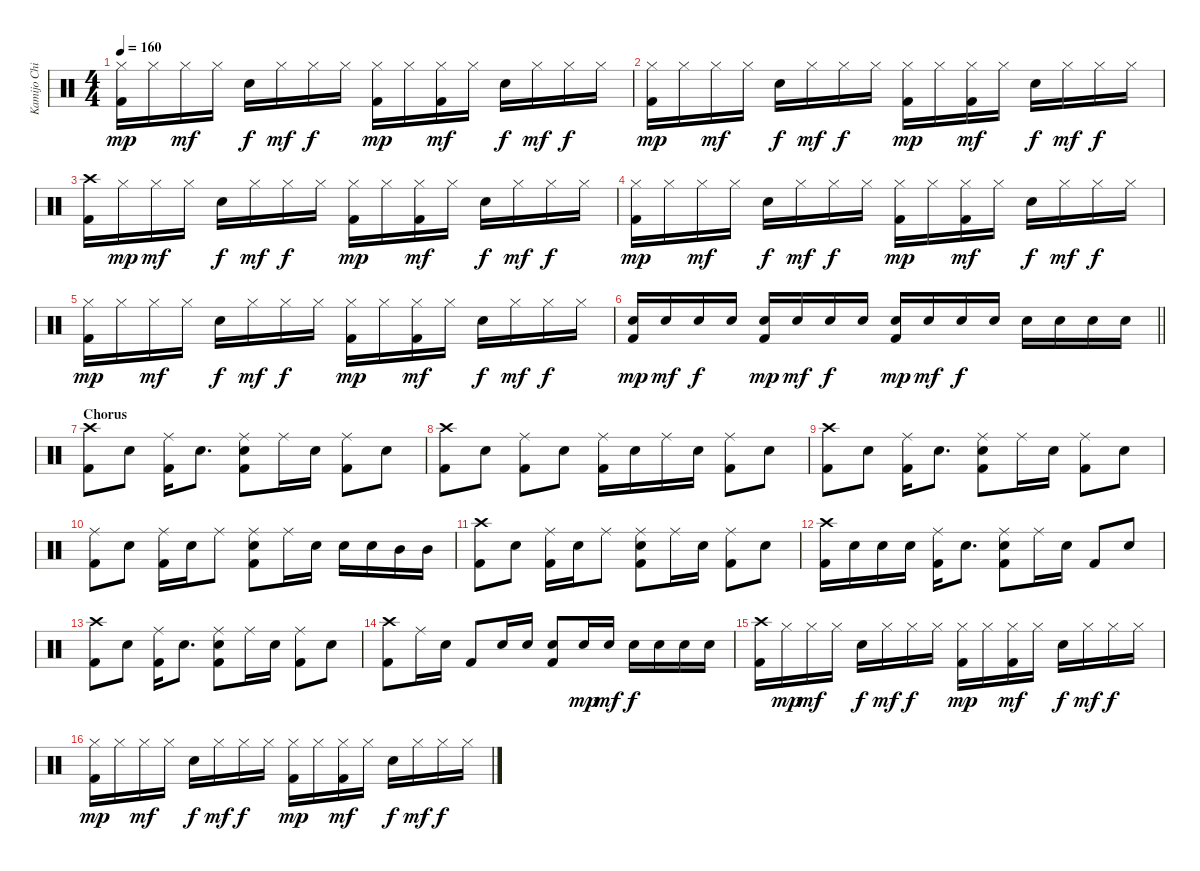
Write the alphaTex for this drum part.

\track ("Kamijo Chihiro" "Kamijo Chi") {instrument percussion}
\staff {score}
\articulation defaults
\ts (4 4)
\tempo 160
\clef neutral
\ks c
("Hi-Hat (closed)" "Kick (hit) 2").16{dy mp} "Hi-Hat (closed)".16 "Hi-Hat (closed)".16{dy mf} "Hi-Hat (closed)".16 "Snare (hit) 2".16{dy f} "Hi-Hat (closed)".16{dy mf} "Hi-Hat (closed)".16{dy f} "Hi-Hat (closed)".16 ("Hi-Hat (closed)" "Kick (hit) 2").16{dy mp} "Hi-Hat (closed)".16 ("Hi-Hat (closed)" "Kick (hit) 2").16{dy mf} "Hi-Hat (closed)".16 "Snare (hit) 2".16{dy f} "Hi-Hat (closed)".16{dy mf} "Hi-Hat (closed)".16{dy f} "Hi-Hat (closed)".16 |
("Hi-Hat (closed)" "Kick (hit) 2").16{dy mp} "Hi-Hat (closed)".16 "Hi-Hat (closed)".16{dy mf} "Hi-Hat (closed)".16 "Snare (hit) 2".16{dy f} "Hi-Hat (closed)".16{dy mf} "Hi-Hat (closed)".16{dy f} "Hi-Hat (closed)".16 ("Hi-Hat (closed)" "Kick (hit) 2").16{dy mp} "Hi-Hat (closed)".16 ("Hi-Hat (closed)" "Kick (hit) 2").16{dy mf} "Hi-Hat (closed)".16 "Snare (hit) 2".16{dy f} "Hi-Hat (closed)".16{dy mf} "Hi-Hat (closed)".16{dy f} "Hi-Hat (closed)".16 |
("Crash high (hit)" "Kick (hit) 2").16 "Hi-Hat (closed)".16{dy mp} "Hi-Hat (closed)".16{dy mf} "Hi-Hat (closed)".16 "Snare (hit) 2".16{dy f} "Hi-Hat (closed)".16{dy mf} "Hi-Hat (closed)".16{dy f} "Hi-Hat (closed)".16 ("Hi-Hat (closed)" "Kick (hit) 2").16{dy mp} "Hi-Hat (closed)".16 ("Hi-Hat (closed)" "Kick (hit) 2").16{dy mf} "Hi-Hat (closed)".16 "Snare (hit) 2".16{dy f} "Hi-Hat (closed)".16{dy mf} "Hi-Hat (closed)".16{dy f} "Hi-Hat (closed)".16 |
("Hi-Hat (closed)" "Kick (hit) 2").16{dy mp} "Hi-Hat (closed)".16 "Hi-Hat (closed)".16{dy mf} "Hi-Hat (closed)".16 "Snare (hit) 2".16{dy f} "Hi-Hat (closed)".16{dy mf} "Hi-Hat (closed)".16{dy f} "Hi-Hat (closed)".16 ("Hi-Hat (closed)" "Kick (hit) 2").16{dy mp} "Hi-Hat (closed)".16 ("Hi-Hat (closed)" "Kick (hit) 2").16{dy mf} "Hi-Hat (closed)".16 "Snare (hit) 2".16{dy f} "Hi-Hat (closed)".16{dy mf} "Hi-Hat (closed)".16{dy f} "Hi-Hat (closed)".16 |
("Hi-Hat (closed)" "Kick (hit) 2").16{dy mp} "Hi-Hat (closed)".16 "Hi-Hat (closed)".16{dy mf} "Hi-Hat (closed)".16 "Snare (hit) 2".16{dy f} "Hi-Hat (closed)".16{dy mf} "Hi-Hat (closed)".16{dy f} "Hi-Hat (closed)".16 ("Hi-Hat (closed)" "Kick (hit) 2").16{dy mp} "Hi-Hat (closed)".16 ("Hi-Hat (closed)" "Kick (hit) 2").16{dy mf} "Hi-Hat (closed)".16 "Snare (hit) 2".16{dy f} "Hi-Hat (closed)".16{dy mf} "Hi-Hat (closed)".16{dy f} "Hi-Hat (closed)".16 |
\barLineRight lightlight
("Snare (hit) 2" "Kick (hit) 2").16{dy mp} "Snare (hit) 2".16{dy mf} "Snare (hit) 2".16{dy f} "Snare (hit) 2".16 ("Snare (hit) 2" "Kick (hit) 2").16{dy mp} "Snare (hit) 2".16{dy mf} "Snare (hit) 2".16{dy f} "Snare (hit) 2".16 ("Snare (hit) 2" "Kick (hit) 2").16{dy mp} "Snare (hit) 2".16{dy mf} "Snare (hit) 2".16{dy f} "Snare (hit) 2".16 "Snare (hit) 2".16 "Snare (hit) 2".16 "Snare (hit) 2".16 "Snare (hit) 2".16 |
\section ("" "Chorus")
("Crash high (hit)" "Kick (hit) 2").8 "Snare (hit) 2".8 ("Ride (middle)" "Kick (hit) 2").16 "Snare (hit) 2".8{d} ("Ride (middle)" "Snare (hit) 2" "Kick (hit) 2").8 "Ride (middle)".16 "Snare (hit) 2".16 ("Ride (middle)" "Kick (hit) 2").8 "Snare (hit) 2".8 |
("Crash high (hit)" "Kick (hit) 2").8 "Snare (hit) 2".8 ("Ride (middle)" "Kick (hit) 2").8 "Snare (hit) 2".8 ("Ride (middle)" "Kick (hit) 2").16 "Snare (hit) 2".16 "Ride (middle)".16 "Snare (hit) 2".16 ("Ride (middle)" "Kick (hit) 2").8 "Snare (hit) 2".8 |
("Crash high (hit)" "Kick (hit) 2").8 "Snare (hit) 2".8 ("Ride (middle)" "Kick (hit) 2").16 "Snare (hit) 2".8{d} ("Ride (middle)" "Snare (hit) 2" "Kick (hit) 2").8 "Ride (middle)".16 "Snare (hit) 2".16 ("Ride (middle)" "Kick (hit) 2").8 "Snare (hit) 2".8 |
("Ride (middle)" "Kick (hit) 2").8 "Snare (hit) 2".8 ("Ride (middle)" "Kick (hit) 2").16 "Snare (hit) 2".16 "Ride (middle)".8 ("Ride (middle)" "Snare (hit) 2" "Kick (hit) 2").8 "Ride (middle)".16 "Snare (hit) 2".16 "Snare (hit) 2".16 "Snare (hit) 2".16 "Mid Tom (hit)".16 "Mid Tom (hit)".16 |
("Crash high (hit)" "Kick (hit) 2").8 "Snare (hit) 2".8 ("Ride (middle)" "Kick (hit) 2").16 "Snare (hit) 2".16 "Ride (middle)".8 ("Ride (middle)" "Snare (hit) 2" "Kick (hit) 2").8 "Ride (middle)".16 "Snare (hit) 2".16 ("Ride (middle)" "Kick (hit) 2").8 "Snare (hit) 2".8 |
("Crash high (hit)" "Kick (hit) 2").16 "Snare (hit) 2".16 "Snare (hit) 2".16 "Snare (hit) 2".16 ("Ride (middle)" "Kick (hit) 2").16 "Snare (hit) 2".8{d} ("Ride (middle)" "Snare (hit) 2" "Kick (hit) 2").8 "Ride (middle)".16 "Snare (hit) 2".16 "Kick (hit) 2".8 "Snare (hit) 2".8 |
("Crash high (hit)" "Kick (hit) 2").8 "Snare (hit) 2".8 ("Ride (middle)" "Kick (hit) 2").16 "Snare (hit) 2".8{d} ("Ride (middle)" "Snare (hit) 2" "Kick (hit) 2").8 "Ride (middle)".16 "Snare (hit) 2".16 ("Ride (middle)" "Kick (hit) 2").8 "Snare (hit) 2".8 |
("Crash high (hit)" "Kick (hit) 2").8 "Ride (middle)".16 "Snare (hit) 2".16 "Kick (hit) 2".8 "Snare (hit) 2".16 "Snare (hit) 2".16 ("Snare (hit) 2" "Kick (hit) 2").8 "Snare (hit) 2".16{dy mp} "Snare (hit) 2".16{dy mf} "Snare (hit) 2".16{dy f} "Snare (hit) 2".16 "Snare (hit) 2".16 "Snare (hit) 2".16 |
("Crash high (hit)" "Kick (hit) 2").16 "Hi-Hat (closed)".16{dy mp} "Hi-Hat (closed)".16{dy mf} "Hi-Hat (closed)".16 "Snare (hit) 2".16{dy f} "Hi-Hat (closed)".16{dy mf} "Hi-Hat (closed)".16{dy f} "Hi-Hat (closed)".16 ("Hi-Hat (closed)" "Kick (hit) 2").16{dy mp} "Hi-Hat (closed)".16 ("Hi-Hat (closed)" "Kick (hit) 2").16{dy mf} "Hi-Hat (closed)".16 "Snare (hit) 2".16{dy f} "Hi-Hat (closed)".16{dy mf} "Hi-Hat (closed)".16{dy f} "Hi-Hat (closed)".16 |
("Hi-Hat (closed)" "Kick (hit) 2").16{dy mp} "Hi-Hat (closed)".16 "Hi-Hat (closed)".16{dy mf} "Hi-Hat (closed)".16 "Snare (hit) 2".16{dy f} "Hi-Hat (closed)".16{dy mf} "Hi-Hat (closed)".16{dy f} "Hi-Hat (closed)".16 ("Hi-Hat (closed)" "Kick (hit) 2").16{dy mp} "Hi-Hat (closed)".16 ("Hi-Hat (closed)" "Kick (hit) 2").16{dy mf} "Hi-Hat (closed)".16 "Snare (hit) 2".16{dy f} "Hi-Hat (closed)".16{dy mf} "Hi-Hat (closed)".16{dy f} "Hi-Hat (closed)".16
